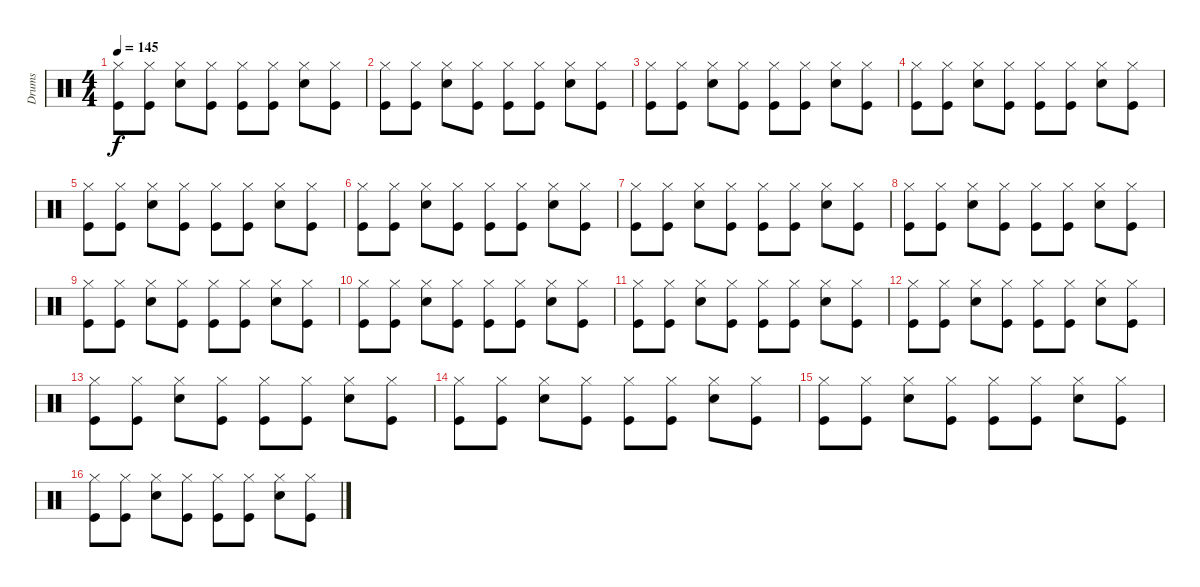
\track ("Drums" "Drums") {instrument percussion}
\staff {score}
\articulation defaults
\ts (4 4)
\tempo 145
\clef neutral
\ks c
("Kick (hit)" "Hi-Hat (closed)").8{dy f} ("Kick (hit)" "Hi-Hat (closed)").8 ("Hi-Hat (closed)" "Snare (hit) 2").8 ("Kick (hit)" "Hi-Hat (closed)").8 ("Kick (hit)" "Hi-Hat (closed)").8 ("Kick (hit)" "Hi-Hat (closed)").8 ("Hi-Hat (closed)" "Snare (hit) 2").8 ("Kick (hit)" "Hi-Hat (closed)").8 |
("Kick (hit)" "Hi-Hat (closed)").8 ("Kick (hit)" "Hi-Hat (closed)").8 ("Hi-Hat (closed)" "Snare (hit) 2").8 ("Kick (hit)" "Hi-Hat (closed)").8 ("Kick (hit)" "Hi-Hat (closed)").8 ("Kick (hit)" "Hi-Hat (closed)").8 ("Hi-Hat (closed)" "Snare (hit) 2").8 ("Kick (hit)" "Hi-Hat (closed)").8 |
("Kick (hit)" "Hi-Hat (closed)").8 ("Kick (hit)" "Hi-Hat (closed)").8 ("Hi-Hat (closed)" "Snare (hit) 2").8 ("Kick (hit)" "Hi-Hat (closed)").8 ("Kick (hit)" "Hi-Hat (closed)").8 ("Kick (hit)" "Hi-Hat (closed)").8 ("Hi-Hat (closed)" "Snare (hit) 2").8 ("Kick (hit)" "Hi-Hat (closed)").8 |
("Kick (hit)" "Hi-Hat (closed)").8 ("Kick (hit)" "Hi-Hat (closed)").8 ("Hi-Hat (closed)" "Snare (hit) 2").8 ("Kick (hit)" "Hi-Hat (closed)").8 ("Kick (hit)" "Hi-Hat (closed)").8 ("Kick (hit)" "Hi-Hat (closed)").8 ("Hi-Hat (closed)" "Snare (hit) 2").8 ("Kick (hit)" "Hi-Hat (closed)").8 |
("Kick (hit)" "Hi-Hat (closed)").8 ("Kick (hit)" "Hi-Hat (closed)").8 ("Hi-Hat (closed)" "Snare (hit) 2").8 ("Kick (hit)" "Hi-Hat (closed)").8 ("Kick (hit)" "Hi-Hat (closed)").8 ("Kick (hit)" "Hi-Hat (closed)").8 ("Hi-Hat (closed)" "Snare (hit) 2").8 ("Kick (hit)" "Hi-Hat (closed)").8 |
("Kick (hit)" "Hi-Hat (closed)").8 ("Kick (hit)" "Hi-Hat (closed)").8 ("Hi-Hat (closed)" "Snare (hit) 2").8 ("Kick (hit)" "Hi-Hat (closed)").8 ("Kick (hit)" "Hi-Hat (closed)").8 ("Kick (hit)" "Hi-Hat (closed)").8 ("Hi-Hat (closed)" "Snare (hit) 2").8 ("Kick (hit)" "Hi-Hat (closed)").8 |
("Kick (hit)" "Hi-Hat (closed)").8 ("Kick (hit)" "Hi-Hat (closed)").8 ("Hi-Hat (closed)" "Snare (hit) 2").8 ("Kick (hit)" "Hi-Hat (closed)").8 ("Kick (hit)" "Hi-Hat (closed)").8 ("Kick (hit)" "Hi-Hat (closed)").8 ("Hi-Hat (closed)" "Snare (hit) 2").8 ("Kick (hit)" "Hi-Hat (closed)").8 |
("Kick (hit)" "Hi-Hat (closed)").8 ("Kick (hit)" "Hi-Hat (closed)").8 ("Hi-Hat (closed)" "Snare (hit) 2").8 ("Kick (hit)" "Hi-Hat (closed)").8 ("Kick (hit)" "Hi-Hat (closed)").8 ("Kick (hit)" "Hi-Hat (closed)").8 ("Hi-Hat (closed)" "Snare (hit) 2").8 ("Kick (hit)" "Hi-Hat (closed)").8 |
("Kick (hit)" "Hi-Hat (closed)").8 ("Kick (hit)" "Hi-Hat (closed)").8 ("Hi-Hat (closed)" "Snare (hit) 2").8 ("Kick (hit)" "Hi-Hat (closed)").8 ("Kick (hit)" "Hi-Hat (closed)").8 ("Kick (hit)" "Hi-Hat (closed)").8 ("Hi-Hat (closed)" "Snare (hit) 2").8 ("Kick (hit)" "Hi-Hat (closed)").8 |
("Kick (hit)" "Hi-Hat (closed)").8 ("Kick (hit)" "Hi-Hat (closed)").8 ("Hi-Hat (closed)" "Snare (hit) 2").8 ("Kick (hit)" "Hi-Hat (closed)").8 ("Kick (hit)" "Hi-Hat (closed)").8 ("Kick (hit)" "Hi-Hat (closed)").8 ("Hi-Hat (closed)" "Snare (hit) 2").8 ("Kick (hit)" "Hi-Hat (closed)").8 |
("Kick (hit)" "Hi-Hat (closed)").8 ("Kick (hit)" "Hi-Hat (closed)").8 ("Hi-Hat (closed)" "Snare (hit) 2").8 ("Kick (hit)" "Hi-Hat (closed)").8 ("Kick (hit)" "Hi-Hat (closed)").8 ("Kick (hit)" "Hi-Hat (closed)").8 ("Hi-Hat (closed)" "Snare (hit) 2").8 ("Kick (hit)" "Hi-Hat (closed)").8 |
("Kick (hit)" "Hi-Hat (closed)").8 ("Kick (hit)" "Hi-Hat (closed)").8 ("Hi-Hat (closed)" "Snare (hit) 2").8 ("Kick (hit)" "Hi-Hat (closed)").8 ("Kick (hit)" "Hi-Hat (closed)").8 ("Kick (hit)" "Hi-Hat (closed)").8 ("Hi-Hat (closed)" "Snare (hit) 2").8 ("Kick (hit)" "Hi-Hat (closed)").8 |
("Kick (hit)" "Hi-Hat (closed)").8 ("Kick (hit)" "Hi-Hat (closed)").8 ("Hi-Hat (closed)" "Snare (hit) 2").8 ("Kick (hit)" "Hi-Hat (closed)").8 ("Kick (hit)" "Hi-Hat (closed)").8 ("Kick (hit)" "Hi-Hat (closed)").8 ("Hi-Hat (closed)" "Snare (hit) 2").8 ("Kick (hit)" "Hi-Hat (closed)").8 |
("Kick (hit)" "Hi-Hat (closed)").8 ("Kick (hit)" "Hi-Hat (closed)").8 ("Hi-Hat (closed)" "Snare (hit) 2").8 ("Kick (hit)" "Hi-Hat (closed)").8 ("Kick (hit)" "Hi-Hat (closed)").8 ("Kick (hit)" "Hi-Hat (closed)").8 ("Hi-Hat (closed)" "Snare (hit) 2").8 ("Kick (hit)" "Hi-Hat (closed)").8 |
("Kick (hit)" "Hi-Hat (closed)").8 ("Kick (hit)" "Hi-Hat (closed)").8 ("Hi-Hat (closed)" "Snare (hit) 2").8 ("Kick (hit)" "Hi-Hat (closed)").8 ("Kick (hit)" "Hi-Hat (closed)").8 ("Kick (hit)" "Hi-Hat (closed)").8 ("Hi-Hat (closed)" "Snare (hit) 2").8 ("Kick (hit)" "Hi-Hat (closed)").8 |
("Kick (hit)" "Hi-Hat (closed)").8 ("Kick (hit)" "Hi-Hat (closed)").8 ("Hi-Hat (closed)" "Snare (hit) 2").8 ("Kick (hit)" "Hi-Hat (closed)").8 ("Kick (hit)" "Hi-Hat (closed)").8 ("Kick (hit)" "Hi-Hat (closed)").8 ("Hi-Hat (closed)" "Snare (hit) 2").8 ("Kick (hit)" "Hi-Hat (closed)").8
